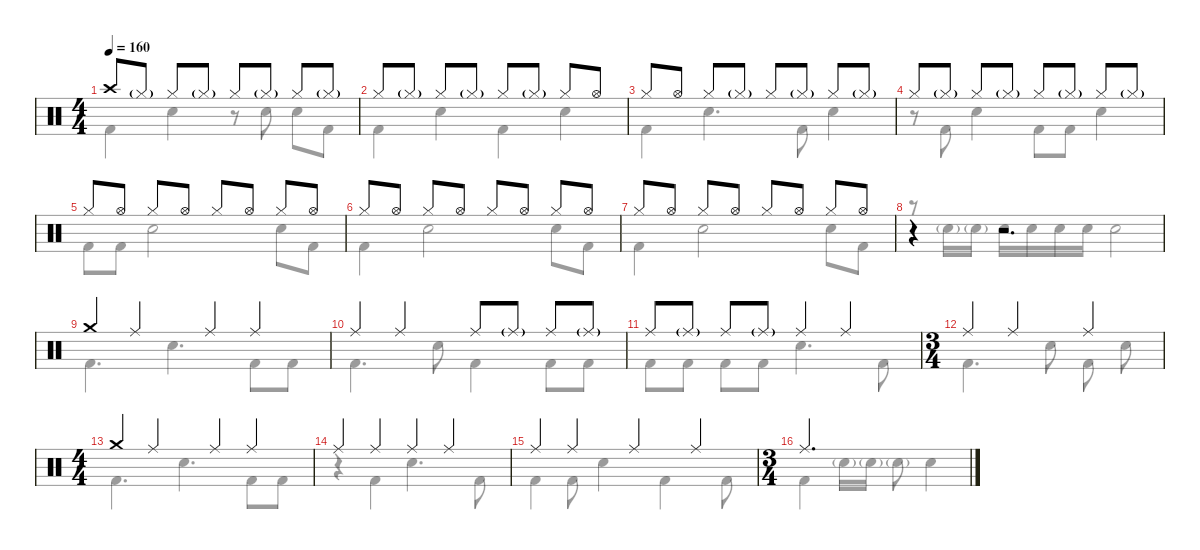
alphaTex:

\defaultSystemsLayout 4
\hideDynamics
\bracketExtendMode nobrackets
\singleTrackTrackNamePolicy hidden
\multiTrackTrackNamePolicy hidden
\firstSystemTrackNameMode fullname
\firstSystemTrackNameOrientation horizontal
\otherSystemsTrackNameOrientation horizontal
\track ("Drums" "drm.") {instrument percussion}
\staff {score}
\articulation defaults
\voice
\ts (4 4)
\tempo 160
\clef neutral
\ks c "Crash high (hit)".8{dy f beam Up} "Hi-Hat (closed)"{g}.8{dy ff beam Up} "Hi-Hat (closed)".8{dy f beam Up} "Hi-Hat (closed)"{g}.8{dy ff beam Up} "Hi-Hat (closed)".8{dy f beam Up} "Hi-Hat (closed)"{g}.8{dy ff beam Up} "Hi-Hat (closed)".8{dy f beam Up} "Hi-Hat (closed)"{g}.8{dy ff beam Up}
|
"Hi-Hat (closed)".8{dy f beam Up} "Hi-Hat (closed)"{g}.8{dy ff beam Up} "Hi-Hat (closed)".8{dy f beam Up} "Hi-Hat (closed)"{g}.8{dy ff beam Up} "Hi-Hat (closed)".8{dy f beam Up} "Hi-Hat (closed)"{g}.8{dy ff beam Up} "Hi-Hat (closed)".8{dy f beam Up} "Hi-Hat (open)".8{beam Up} |
"Hi-Hat (closed)".8{beam Up} "Hi-Hat (open)".8{beam Up} "Hi-Hat (closed)".8{beam Up} "Hi-Hat (closed)"{g}.8{dy ff beam Up} "Hi-Hat (closed)".8{dy f beam Up} "Hi-Hat (closed)"{g}.8{dy ff beam Up} "Hi-Hat (closed)".8{dy f beam Up} "Hi-Hat (closed)"{g}.8{dy ff beam Up} |
"Hi-Hat (closed)".8{dy f beam Up} "Hi-Hat (closed)"{g}.8{dy ff beam Up} "Hi-Hat (closed)".8{dy f beam Up} "Hi-Hat (closed)"{g}.8{dy ff beam Up} "Hi-Hat (closed)".8{dy f beam Up} "Hi-Hat (closed)"{g}.8{dy ff beam Up} "Hi-Hat (closed)".8{dy f beam Up} "Hi-Hat (closed)"{g}.8{dy ff beam Up} |
"Hi-Hat (closed)".8{dy f beam Up} "Hi-Hat (open)".8{beam Up} "Hi-Hat (closed)".8{beam Up} "Hi-Hat (open)".8{beam Up} "Hi-Hat (closed)".8{beam Up} "Hi-Hat (open)".8{beam Up} "Hi-Hat (closed)".8{beam Up} "Hi-Hat (open)".8{beam Up} |
"Hi-Hat (closed)".8{beam Up} "Hi-Hat (open)".8{beam Up} "Hi-Hat (closed)".8{beam Up} "Hi-Hat (open)".8{beam Up} "Hi-Hat (closed)".8{beam Up} "Hi-Hat (open)".8{beam Up} "Hi-Hat (closed)".8{beam Up} "Hi-Hat (open)".8{beam Up} |
"Hi-Hat (closed)".8{beam Up} "Hi-Hat (open)".8{beam Up} "Hi-Hat (closed)".8{beam Up} "Hi-Hat (open)".8{beam Up} "Hi-Hat (closed)".8{beam Up} "Hi-Hat (open)".8{beam Up} "Hi-Hat (closed)".8{beam Up} "Hi-Hat (open)".8{beam Up} |
r.4{beam Up} r.2{d beam Up} |
"Crash medium (hit)".4{beam Up} "Ride (middle)".4{beam Up} "Ride (middle)".4{beam Up} "Ride (middle)".4{beam Up} |
"Ride (middle)".4{beam Up} "Ride (middle)".4{beam Up} "Ride (middle)".8{beam Up} "Ride (middle)"{g}.8{dy ff beam Up} "Ride (middle)".8{dy f beam Up} "Ride (middle)"{g}.8{dy ff beam Up} |
"Ride (middle)".8{dy f beam Up} "Ride (middle)"{g}.8{dy ff beam Up} "Ride (middle)".8{dy f beam Up} "Ride (middle)"{g}.8{dy ff beam Up} "Ride (middle)".4{dy f beam Up} "Ride (middle)".4{beam Up} |
\ts (3 4)
\beaming (8 3 1 1 1)
"Ride (middle)".4{beam Up} "Ride (middle)".4{beam Up} "Ride (middle)".4{beam Up} |
\ts (4 4)
\beaming (8 2 2 2 2)
"Crash medium (hit)".4{beam Up} "Ride (middle)".4{beam Up} "Ride (middle)".4{beam Up} "Ride (middle)".4{beam Up} |
"Ride (middle)".4{beam Up} "Ride (middle)".4{beam Up} "Ride (middle)".4{beam Up} "Ride (middle)".4{beam Up} |
"Ride (middle)".4{beam Up} "Ride (middle)".4{beam Up} "Ride (middle)".4{beam Up} "Ride (middle)".4{beam Up} |
\ts (3 4)
\beaming (8 3 1 1 1)
"Ride (middle)".2{d beam Up}
\voice
\clef neutral
\ottava regular
\simile none
\ks c "Kick (hit) 2".4{dy f beam Down} "Snare (hit) 2".4{beam Down}
r.8{beam Down} "Snare (hit) 2".8{beam Down} "Snare (hit) 2".8{beam Down} "Kick (hit) 2".8{beam Down} |
"Kick (hit) 2".4{beam Down} "Snare (hit) 2".4{beam Down} "Kick (hit) 2".4{beam Down} "Snare (hit) 2".4{beam Down} |
"Kick (hit) 2".4{beam Down} "Snare (hit) 2".4{d beam Down} "Kick (hit) 2".8{beam Down} "Snare (hit) 2".4{beam Down} |
r.8{beam Down} "Kick (hit) 2".8{beam Down} "Snare (hit) 2".4{beam Down} "Kick (hit) 2".8{beam Down} "Kick (hit) 2".8{beam Down} "Snare (hit) 2".4{beam Down} |
"Kick (hit) 2".8{beam Down} "Kick (hit) 2".8{beam Down} "Snare (hit) 2".2{beam Down} "Snare (hit) 2".8{beam Down} "Kick (hit) 2".8{beam Down} |
"Kick (hit) 2".4{beam Down} "Snare (hit) 2".2{beam Down} "Snare (hit) 2".8{beam Down} "Kick (hit) 2".8{beam Down} |
"Kick (hit) 2".4{beam Down} "Snare (hit) 2".2{beam Down} "Snare (hit) 2".8{beam Down} "Kick (hit) 2".8{beam Down} |
r.8{beam Down} "Snare (hit) 2"{g}.16{beam Down} "Snare (hit) 2"{g}.16{beam Down} "Snare (hit) 2".16{dy mf beam Down} "Snare (hit) 2".16{beam Down} "Snare (hit) 2".16{dy f beam Down} "Snare (hit) 2".16{beam Down} "Snare (hit) 2".2{beam Down} |
"Kick (hit) 2".4{d beam Down} "Snare (hit) 2".4{d beam Down} "Kick (hit) 2".8{beam Down} "Kick (hit) 2".8{beam Down} |
"Kick (hit) 2".4{d beam Down} "Snare (hit) 2".8{beam Down} "Kick (hit) 2".4{beam Down} "Kick (hit) 2".8{beam Down} "Kick (hit) 2".8{beam Down} |
"Kick (hit) 2".8{beam Down} "Kick (hit) 2".8{beam Down} "Kick (hit) 2".8{beam Down} "Kick (hit) 2".8{beam Down} "Snare (hit) 2".4{d beam Down} "Kick (hit) 2".8{beam Down} |
"Kick (hit) 2".4{d beam Down} "Snare (hit) 2".8{beam Down} "Kick (hit) 2".8{beam Down} "Snare (hit) 2".8{beam Down} |
"Kick (hit) 2".4{d beam Down} "Snare (hit) 2".4{d beam Down} "Kick (hit) 2".8{beam Down} "Kick (hit) 2".8{beam Down} |
r.4{beam Down} "Kick (hit) 2".4{beam Down} "Snare (hit) 2".4{d beam Down} "Kick (hit) 2".8{beam Down} |
"Kick (hit) 2".4{beam Down} "Kick (hit) 2".8{beam Down} "Snare (hit) 2".4{beam Down} "Kick (hit) 2".4{beam Down} "Kick (hit) 2".8{beam Down} |
"Kick (hit) 2".4{beam Down} "Snare (hit) 2"{g}.16{dy ff beam Down} "Snare (hit) 2"{g}.16{beam Down} "Snare (hit) 2"{g}.8{beam Down} "Snare (hit) 2".4{dy f beam Down}
